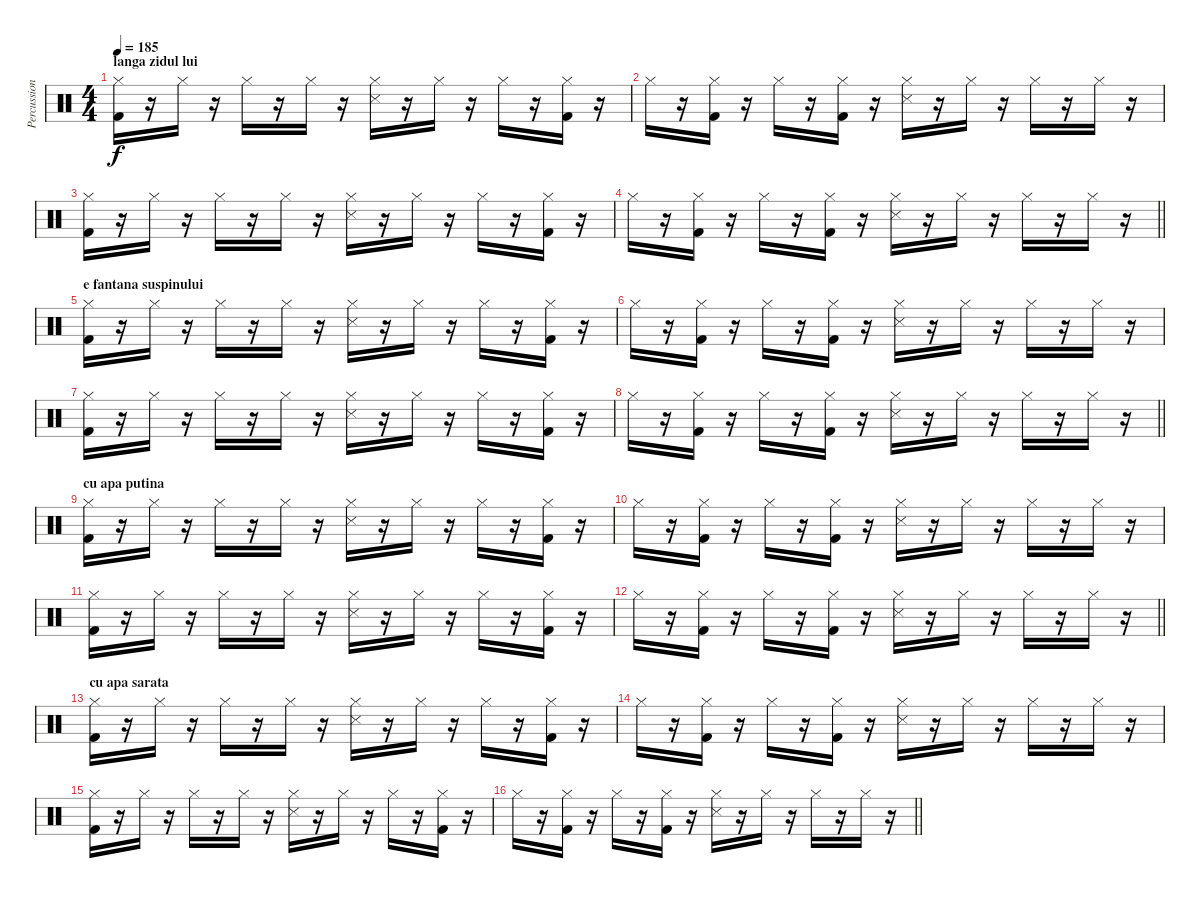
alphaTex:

\track ("Percussion" "Percussion") {instrument percussion}
\staff {score}
\articulation defaults
\ts (4 4)
\section ("" "langa zidul lui")
\tempo 185
\clef neutral
\ks c
("Hi-Hat (closed)" "Kick (hit) 2").16{dy f} r.16 "Hi-Hat (closed)".16 r.16 "Hi-Hat (closed)".16 r.16 "Hi-Hat (closed)".16 r.16 ("Hi-Hat (closed)" "Metronome (hit)").16 r.16 "Hi-Hat (closed)".16 r.16 "Hi-Hat (closed)".16 r.16 ("Hi-Hat (closed)" "Kick (hit) 2").16 r.16 |
"Hi-Hat (closed)".16 r.16 ("Hi-Hat (closed)" "Kick (hit) 2").16 r.16 "Hi-Hat (closed)".16 r.16 ("Hi-Hat (closed)" "Kick (hit) 2").16 r.16 ("Hi-Hat (closed)" "Metronome (hit)").16 r.16 "Hi-Hat (closed)".16 r.16 "Hi-Hat (closed)".16 r.16 "Hi-Hat (closed)".16 r.16 |
("Hi-Hat (closed)" "Kick (hit) 2").16 r.16 "Hi-Hat (closed)".16 r.16 "Hi-Hat (closed)".16 r.16 "Hi-Hat (closed)".16 r.16 ("Hi-Hat (closed)" "Metronome (hit)").16 r.16 "Hi-Hat (closed)".16 r.16 "Hi-Hat (closed)".16 r.16 ("Hi-Hat (closed)" "Kick (hit) 2").16 r.16 |
\barLineRight lightlight "Hi-Hat (closed)".16
r.16 ("Hi-Hat (closed)" "Kick (hit) 2").16 r.16 "Hi-Hat (closed)".16 r.16 ("Hi-Hat (closed)" "Kick (hit) 2").16 r.16 ("Hi-Hat (closed)" "Metronome (hit)").16 r.16 "Hi-Hat (closed)".16 r.16 "Hi-Hat (closed)".16 r.16 "Hi-Hat (closed)".16 r.16 |
\section ("" "e fantana suspinului")
("Hi-Hat (closed)" "Kick (hit) 2").16 r.16 "Hi-Hat (closed)".16 r.16 "Hi-Hat (closed)".16 r.16 "Hi-Hat (closed)".16 r.16 ("Hi-Hat (closed)" "Metronome (hit)").16 r.16 "Hi-Hat (closed)".16 r.16 "Hi-Hat (closed)".16 r.16 ("Hi-Hat (closed)" "Kick (hit) 2").16 r.16 |
"Hi-Hat (closed)".16 r.16 ("Hi-Hat (closed)" "Kick (hit) 2").16 r.16 "Hi-Hat (closed)".16 r.16 ("Hi-Hat (closed)" "Kick (hit) 2").16 r.16 ("Hi-Hat (closed)" "Metronome (hit)").16 r.16 "Hi-Hat (closed)".16 r.16 "Hi-Hat (closed)".16 r.16 "Hi-Hat (closed)".16 r.16 |
("Hi-Hat (closed)" "Kick (hit) 2").16 r.16 "Hi-Hat (closed)".16 r.16 "Hi-Hat (closed)".16 r.16 "Hi-Hat (closed)".16 r.16 ("Hi-Hat (closed)" "Metronome (hit)").16 r.16 "Hi-Hat (closed)".16 r.16 "Hi-Hat (closed)".16 r.16 ("Hi-Hat (closed)" "Kick (hit) 2").16 r.16 |
\barLineRight lightlight "Hi-Hat (closed)".16
r.16 ("Hi-Hat (closed)" "Kick (hit) 2").16 r.16 "Hi-Hat (closed)".16 r.16 ("Hi-Hat (closed)" "Kick (hit) 2").16 r.16 ("Hi-Hat (closed)" "Metronome (hit)").16 r.16 "Hi-Hat (closed)".16 r.16 "Hi-Hat (closed)".16 r.16 "Hi-Hat (closed)".16 r.16 |
\section ("" "cu apa putina")
("Hi-Hat (closed)" "Kick (hit) 2").16 r.16 "Hi-Hat (closed)".16 r.16 "Hi-Hat (closed)".16 r.16 "Hi-Hat (closed)".16 r.16 ("Hi-Hat (closed)" "Metronome (hit)").16 r.16 "Hi-Hat (closed)".16 r.16 "Hi-Hat (closed)".16 r.16 ("Hi-Hat (closed)" "Kick (hit) 2").16 r.16 |
"Hi-Hat (closed)".16 r.16 ("Hi-Hat (closed)" "Kick (hit) 2").16 r.16 "Hi-Hat (closed)".16 r.16 ("Hi-Hat (closed)" "Kick (hit) 2").16 r.16 ("Hi-Hat (closed)" "Metronome (hit)").16 r.16 "Hi-Hat (closed)".16 r.16 "Hi-Hat (closed)".16 r.16 "Hi-Hat (closed)".16 r.16 |
("Hi-Hat (closed)" "Kick (hit) 2").16 r.16 "Hi-Hat (closed)".16 r.16 "Hi-Hat (closed)".16 r.16 "Hi-Hat (closed)".16 r.16 ("Hi-Hat (closed)" "Metronome (hit)").16 r.16 "Hi-Hat (closed)".16 r.16 "Hi-Hat (closed)".16 r.16 ("Hi-Hat (closed)" "Kick (hit) 2").16 r.16 |
\barLineRight lightlight "Hi-Hat (closed)".16
r.16 ("Hi-Hat (closed)" "Kick (hit) 2").16 r.16 "Hi-Hat (closed)".16 r.16 ("Hi-Hat (closed)" "Kick (hit) 2").16 r.16 ("Hi-Hat (closed)" "Metronome (hit)").16 r.16 "Hi-Hat (closed)".16 r.16 "Hi-Hat (closed)".16 r.16 "Hi-Hat (closed)".16 r.16 |
\section ("" "cu apa sarata")
("Hi-Hat (closed)" "Kick (hit) 2").16 r.16 "Hi-Hat (closed)".16 r.16 "Hi-Hat (closed)".16 r.16 "Hi-Hat (closed)".16 r.16 ("Hi-Hat (closed)" "Metronome (hit)").16 r.16 "Hi-Hat (closed)".16 r.16 "Hi-Hat (closed)".16 r.16 ("Hi-Hat (closed)" "Kick (hit) 2").16 r.16 |
"Hi-Hat (closed)".16 r.16 ("Hi-Hat (closed)" "Kick (hit) 2").16 r.16 "Hi-Hat (closed)".16 r.16 ("Hi-Hat (closed)" "Kick (hit) 2").16 r.16 ("Hi-Hat (closed)" "Metronome (hit)").16 r.16 "Hi-Hat (closed)".16 r.16 "Hi-Hat (closed)".16 r.16 "Hi-Hat (closed)".16 r.16 |
("Hi-Hat (closed)" "Kick (hit) 2").16 r.16 "Hi-Hat (closed)".16 r.16 "Hi-Hat (closed)".16 r.16 "Hi-Hat (closed)".16 r.16 ("Hi-Hat (closed)" "Metronome (hit)").16 r.16 "Hi-Hat (closed)".16 r.16 "Hi-Hat (closed)".16 r.16 ("Hi-Hat (closed)" "Kick (hit) 2").16 r.16 |
\barLineRight lightlight "Hi-Hat (closed)".16
r.16 ("Hi-Hat (closed)" "Kick (hit) 2").16 r.16 "Hi-Hat (closed)".16 r.16 ("Hi-Hat (closed)" "Kick (hit) 2").16 r.16 ("Hi-Hat (closed)" "Metronome (hit)").16 r.16 "Hi-Hat (closed)".16 r.16 "Hi-Hat (closed)".16 r.16 "Hi-Hat (closed)".16 r.16
